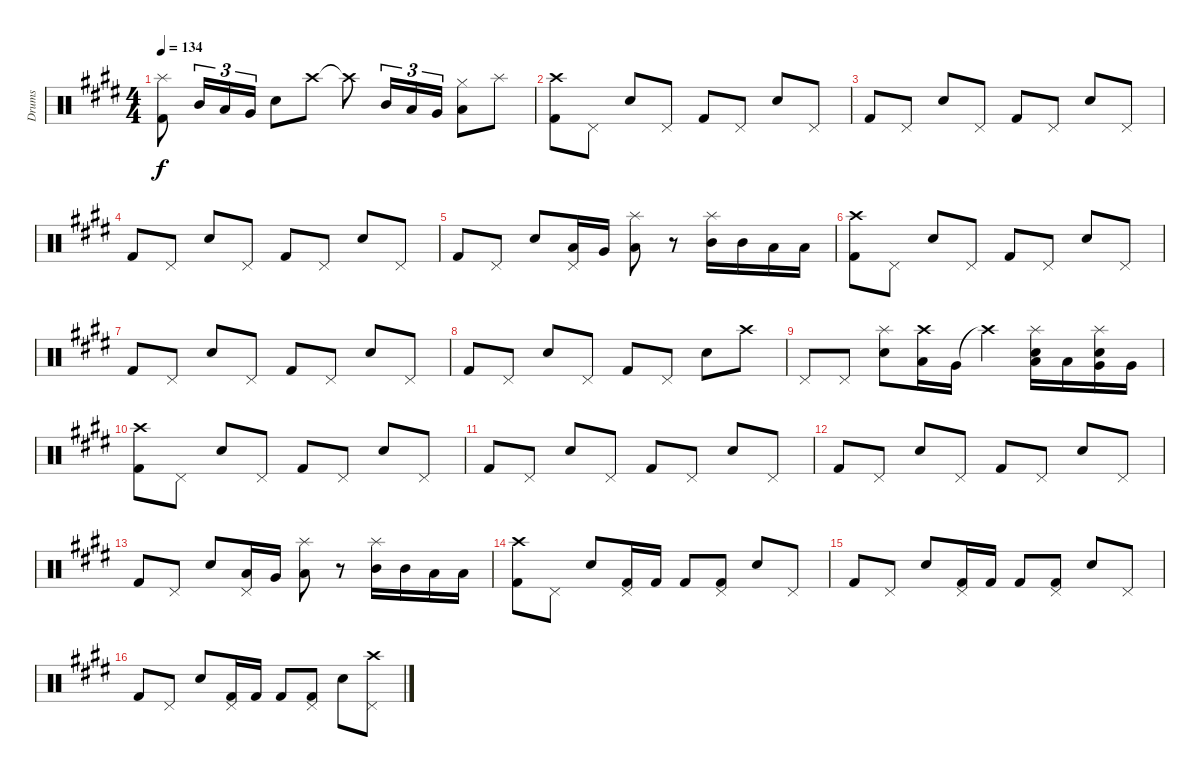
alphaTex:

\track ("Drums" "Drums") {instrument percussion}
\staff {score}
\articulation defaults
\ts (4 4)
\tempo 134
\clef neutral
\ks e
("Splash (hit)" "Kick (hit) 2").8{dy f} "Mid Tom (hit)".16{tu (3 2)} "Low Tom (hit)".16{tu (3 2)} "Very Low Tom (hit)".16{tu (3 2)} "Electric Snare (hit)".8 "Crash high (hit)".8 "Crash high (hit)"{t}.8 "Mid Tom (hit)".16{tu (3 2)} "Low Tom (hit)".16{tu (3 2)} "Very Low Tom (hit)".16{tu (3 2)} ("Low Floor Tom (hit)" "Hi-Hat (closed)").8 "Splash (hit)".8 |
("Crash high (hit)" "Kick (hit) 2").8 "Pedal Hi-Hat (hit)".8 "Electric Snare (hit)".8 "Pedal Hi-Hat (hit)".8 "Kick (hit) 2".8 "Pedal Hi-Hat (hit)".8 "Electric Snare (hit)".8 "Pedal Hi-Hat (hit)".8 |
"Kick (hit) 2".8 "Pedal Hi-Hat (hit)".8 "Electric Snare (hit)".8 "Pedal Hi-Hat (hit)".8 "Kick (hit) 2".8 "Pedal Hi-Hat (hit)".8 "Electric Snare (hit)".8 "Pedal Hi-Hat (hit)".8 |
"Kick (hit) 2".8 "Pedal Hi-Hat (hit)".8 "Electric Snare (hit)".8 "Pedal Hi-Hat (hit)".8 "Kick (hit) 2".8 "Pedal Hi-Hat (hit)".8 "Electric Snare (hit)".8 "Pedal Hi-Hat (hit)".8 |
"Kick (hit) 2".8 "Pedal Hi-Hat (hit)".8 "Electric Snare (hit)".8 ("Low Tom (hit)" "Pedal Hi-Hat (hit)").16 "Very Low Tom (hit)".16 ("Low Floor Tom (hit)" "Splash (hit)").8 r.8 ("Splash (hit)" "Mid Tom (hit)").16 "Mid Tom (hit)".16 "Low Tom (hit)".16 "Low Tom (hit)".16 |
("Crash high (hit)" "Kick (hit) 2").8 "Pedal Hi-Hat (hit)".8 "Electric Snare (hit)".8 "Pedal Hi-Hat (hit)".8 "Kick (hit) 2".8 "Pedal Hi-Hat (hit)".8 "Electric Snare (hit)".8 "Pedal Hi-Hat (hit)".8 |
"Kick (hit) 2".8 "Pedal Hi-Hat (hit)".8 "Electric Snare (hit)".8 "Pedal Hi-Hat (hit)".8 "Kick (hit) 2".8 "Pedal Hi-Hat (hit)".8 "Electric Snare (hit)".8 "Pedal Hi-Hat (hit)".8 |
"Kick (hit) 2".8 "Pedal Hi-Hat (hit)".8 "Electric Snare (hit)".8 "Pedal Hi-Hat (hit)".8 "Kick (hit) 2".8 "Pedal Hi-Hat (hit)".8 "Electric Snare (hit)".8 "Crash high (hit)".8 |
"Pedal Hi-Hat (hit)".8 "Pedal Hi-Hat (hit)".8 ("Electric Snare (hit)" "Splash (hit)").8 ("Crash high (hit)" "Low Tom (hit)").16 "Very Low Tom (hit)".16 "Crash high (hit)"{t}.4 ("Electric Snare (hit)" "Low Tom (hit)" "Splash (hit)").16 "Low Tom (hit)".16 ("Electric Snare (hit)" "Very Low Tom (hit)" "Splash (hit)").16 "Very Low Tom (hit)".16 |
("Crash high (hit)" "Kick (hit) 2").8 "Pedal Hi-Hat (hit)".8 "Electric Snare (hit)".8 "Pedal Hi-Hat (hit)".8 "Kick (hit) 2".8 "Pedal Hi-Hat (hit)".8 "Electric Snare (hit)".8 "Pedal Hi-Hat (hit)".8 |
"Kick (hit) 2".8 "Pedal Hi-Hat (hit)".8 "Electric Snare (hit)".8 "Pedal Hi-Hat (hit)".8 "Kick (hit) 2".8 "Pedal Hi-Hat (hit)".8 "Electric Snare (hit)".8 "Pedal Hi-Hat (hit)".8 |
"Kick (hit) 2".8 "Pedal Hi-Hat (hit)".8 "Electric Snare (hit)".8 "Pedal Hi-Hat (hit)".8 "Kick (hit) 2".8 "Pedal Hi-Hat (hit)".8 "Electric Snare (hit)".8 "Pedal Hi-Hat (hit)".8 |
"Kick (hit) 2".8 "Pedal Hi-Hat (hit)".8 "Electric Snare (hit)".8 ("Low Tom (hit)" "Pedal Hi-Hat (hit)").16 "Very Low Tom (hit)".16 ("Low Floor Tom (hit)" "Splash (hit)").8 r.8 ("Splash (hit)" "Mid Tom (hit)").16 "Mid Tom (hit)".16 "Low Tom (hit)".16 "Low Tom (hit)".16 |
("Crash high (hit)" "Kick (hit) 2").8 "Pedal Hi-Hat (hit)".8 "Electric Snare (hit)".8 ("Kick (hit) 2" "Pedal Hi-Hat (hit)").16 "Kick (hit) 2".16 "Kick (hit) 2".8 ("Kick (hit) 2" "Pedal Hi-Hat (hit)").8 "Electric Snare (hit)".8 "Pedal Hi-Hat (hit)".8 |
"Kick (hit) 2".8 "Pedal Hi-Hat (hit)".8 "Electric Snare (hit)".8 ("Kick (hit) 2" "Pedal Hi-Hat (hit)").16 "Kick (hit) 2".16 "Kick (hit) 2".8 ("Kick (hit) 2" "Pedal Hi-Hat (hit)").8 "Electric Snare (hit)".8 "Pedal Hi-Hat (hit)".8 |
"Kick (hit) 2".8 "Pedal Hi-Hat (hit)".8 "Electric Snare (hit)".8 ("Kick (hit) 2" "Pedal Hi-Hat (hit)").16 "Kick (hit) 2".16 "Kick (hit) 2".8 ("Kick (hit) 2" "Pedal Hi-Hat (hit)").8 "Electric Snare (hit)".8 ("Crash high (hit)" "Pedal Hi-Hat (hit)").8
